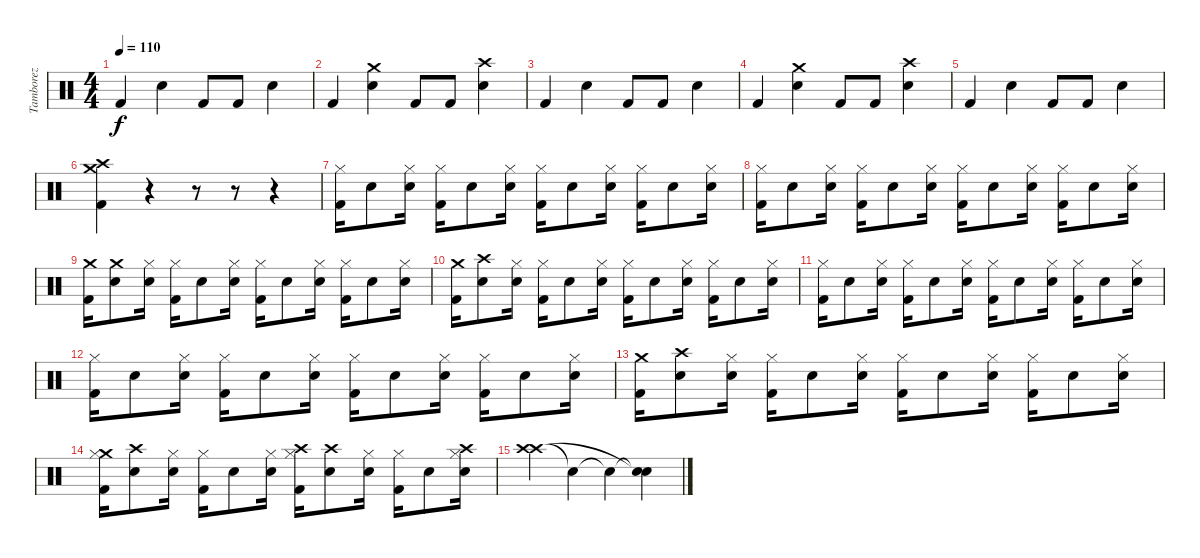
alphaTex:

\track ("Tamborez" "Tamborez") {instrument percussion}
\staff {score}
\articulation defaults
\ts (4 4)
\tempo 110
\clef neutral
\ks c "Kick (hit) 2".4{dy f} "Electric Snare (hit)".4 "Kick (hit) 2".8 "Kick (hit) 2".8 "Electric Snare (hit)".4
|
"Kick (hit) 2".4 ("Crash medium (hit)" "Electric Snare (hit)").4 "Kick (hit) 2".8 "Kick (hit) 2".8 ("Crash high (hit)" "Electric Snare (hit)").4 |
"Kick (hit) 2".4 "Electric Snare (hit)".4 "Kick (hit) 2".8 "Kick (hit) 2".8 "Electric Snare (hit)".4 |
"Kick (hit) 2".4 ("Crash medium (hit)" "Electric Snare (hit)").4 "Kick (hit) 2".8 "Kick (hit) 2".8 ("Crash high (hit)" "Electric Snare (hit)").4 |
"Kick (hit) 2".4 "Electric Snare (hit)".4 "Kick (hit) 2".8 "Kick (hit) 2".8 "Electric Snare (hit)".4 |
("Crash medium (hit)" "Kick (hit) 2" "Crash high (hit)").4 r.4 r.8 r.8 r.4 |
("Hi-Hat (closed)" "Kick (hit) 2").16 "Electric Snare (hit)".8 ("Hi-Hat (closed)" "Electric Snare (hit)").16 ("Hi-Hat (closed)" "Kick (hit) 2").16 "Electric Snare (hit)".8 ("Hi-Hat (closed)" "Electric Snare (hit)").16 ("Hi-Hat (closed)" "Kick (hit) 2").16 "Electric Snare (hit)".8 ("Hi-Hat (closed)" "Electric Snare (hit)").16 ("Hi-Hat (closed)" "Kick (hit) 2").16 "Electric Snare (hit)".8 ("Hi-Hat (closed)" "Electric Snare (hit)").16 |
("Hi-Hat (closed)" "Kick (hit) 2").16 "Electric Snare (hit)".8 ("Hi-Hat (closed)" "Electric Snare (hit)").16 ("Hi-Hat (closed)" "Kick (hit) 2").16 "Electric Snare (hit)".8 ("Hi-Hat (closed)" "Electric Snare (hit)").16 ("Hi-Hat (closed)" "Kick (hit) 2").16 "Electric Snare (hit)".8 ("Hi-Hat (closed)" "Electric Snare (hit)").16 ("Hi-Hat (closed)" "Kick (hit) 2").16 "Electric Snare (hit)".8 ("Hi-Hat (closed)" "Electric Snare (hit)").16 |
("Crash medium (hit)" "Kick (hit) 2").16 ("Crash medium (hit)" "Electric Snare (hit)").8 ("Hi-Hat (closed)" "Electric Snare (hit)").16 ("Hi-Hat (closed)" "Kick (hit) 2").16 "Electric Snare (hit)".8 ("Hi-Hat (closed)" "Electric Snare (hit)").16 ("Hi-Hat (closed)" "Kick (hit) 2").16 "Electric Snare (hit)".8 ("Hi-Hat (closed)" "Electric Snare (hit)").16 ("Hi-Hat (closed)" "Kick (hit) 2").16 "Electric Snare (hit)".8 ("Hi-Hat (closed)" "Electric Snare (hit)").16 |
("Crash medium (hit)" "Kick (hit) 2").16 ("Crash high (hit)" "Electric Snare (hit)").8 ("Hi-Hat (closed)" "Electric Snare (hit)").16 ("Hi-Hat (closed)" "Kick (hit) 2").16 "Electric Snare (hit)".8 ("Hi-Hat (closed)" "Electric Snare (hit)").16 ("Hi-Hat (closed)" "Kick (hit) 2").16 "Electric Snare (hit)".8 ("Hi-Hat (closed)" "Electric Snare (hit)").16 ("Hi-Hat (closed)" "Kick (hit) 2").16 "Electric Snare (hit)".8 ("Hi-Hat (closed)" "Electric Snare (hit)").16 |
("Hi-Hat (closed)" "Kick (hit) 2").16 "Electric Snare (hit)".8 ("Hi-Hat (closed)" "Electric Snare (hit)").16 ("Hi-Hat (closed)" "Kick (hit) 2").16 "Electric Snare (hit)".8 ("Hi-Hat (closed)" "Electric Snare (hit)").16 ("Hi-Hat (closed)" "Kick (hit) 2").16 "Electric Snare (hit)".8 ("Hi-Hat (closed)" "Electric Snare (hit)").16 ("Hi-Hat (closed)" "Kick (hit) 2").16 "Electric Snare (hit)".8 ("Hi-Hat (closed)" "Electric Snare (hit)").16 |
("Hi-Hat (closed)" "Kick (hit) 2").16 "Electric Snare (hit)".8 ("Hi-Hat (closed)" "Electric Snare (hit)").16 ("Hi-Hat (closed)" "Kick (hit) 2").16 "Electric Snare (hit)".8 ("Hi-Hat (closed)" "Electric Snare (hit)").16 ("Hi-Hat (closed)" "Kick (hit) 2").16 "Electric Snare (hit)".8 ("Hi-Hat (closed)" "Electric Snare (hit)").16 ("Hi-Hat (closed)" "Kick (hit) 2").16 "Electric Snare (hit)".8 ("Hi-Hat (closed)" "Electric Snare (hit)").16 |
("Crash medium (hit)" "Kick (hit) 2").16 ("Crash high (hit)" "Electric Snare (hit)").8 ("Hi-Hat (closed)" "Electric Snare (hit)").16 ("Hi-Hat (closed)" "Kick (hit) 2").16 "Electric Snare (hit)".8 ("Hi-Hat (closed)" "Electric Snare (hit)").16 ("Hi-Hat (closed)" "Kick (hit) 2").16 "Electric Snare (hit)".8 ("Hi-Hat (closed)" "Electric Snare (hit)").16 ("Hi-Hat (closed)" "Kick (hit) 2").16 "Electric Snare (hit)".8 ("Hi-Hat (closed)" "Electric Snare (hit)").16 |
("Crash medium (hit)" "Hi-Hat (closed)" "Kick (hit) 2").16 ("Crash high (hit)" "Electric Snare (hit)").8 ("Hi-Hat (closed)" "Electric Snare (hit)").16 ("Hi-Hat (closed)" "Kick (hit) 2").16 "Electric Snare (hit)".8 ("Hi-Hat (closed)" "Electric Snare (hit)").16 ("Crash high (hit)" "Hi-Hat (closed)" "Kick (hit) 2").16 ("Crash high (hit)" "Electric Snare (hit)").8 ("Hi-Hat (closed)" "Electric Snare (hit)").16 ("Hi-Hat (closed)" "Kick (hit) 2").16 "Electric Snare (hit)".8 ("Crash high (hit)" "Hi-Hat (closed)" "Electric Snare (hit)").16 |
("Crash high (hit)" "Crash high (hit)").4 "Snare (hit)"{t}.4 "Snare (hit)"{t}.4 ("Snare (hit)"{t} "Snare (hit)"{t}).4
